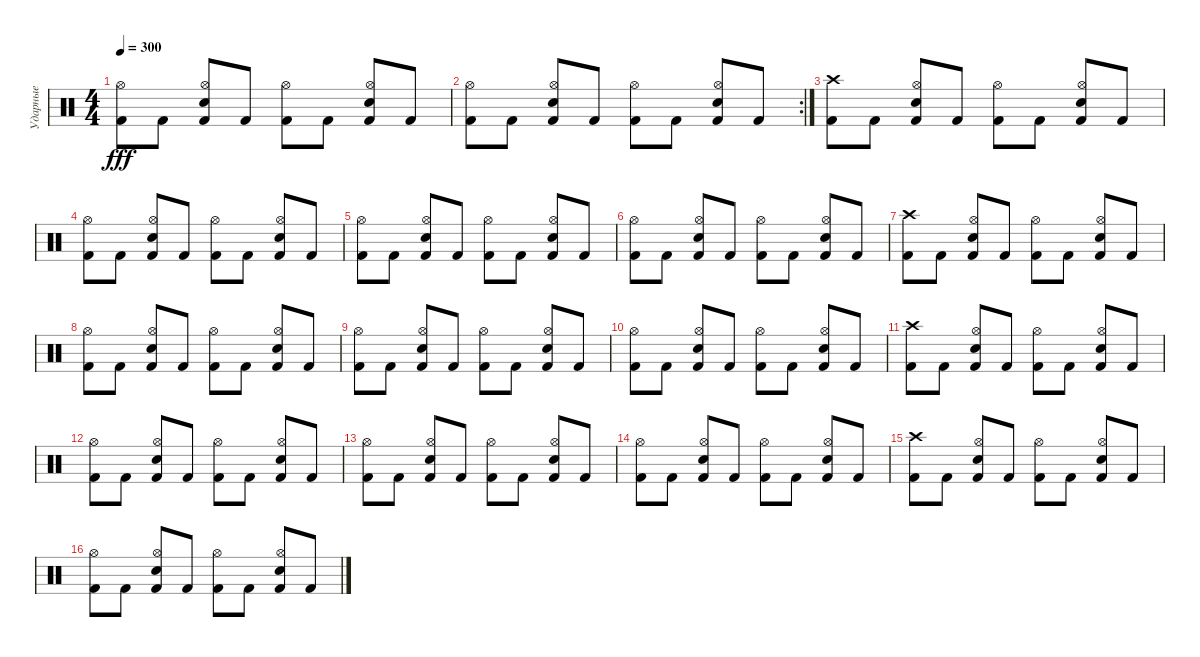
\track ("Ударные" "Ударные") {instrument percussion}
\staff {score}
\articulation defaults
\ts (4 4)
\tempo 300
\clef neutral
\ks c
("Kick (hit) 2" "Hi-Hat (open)").8{dy fff} "Kick (hit) 2".8 ("Kick (hit) 2" "Snare (hit) 2" "Hi-Hat (open)").8 "Kick (hit) 2".8 ("Kick (hit) 2" "Hi-Hat (open)").8 "Kick (hit) 2".8 ("Kick (hit) 2" "Snare (hit) 2" "Hi-Hat (open)").8 "Kick (hit) 2".8 |
\rc 2
("Kick (hit) 2" "Hi-Hat (open)").8 "Kick (hit) 2".8 ("Kick (hit) 2" "Snare (hit) 2" "Hi-Hat (open)").8 "Kick (hit) 2".8 ("Kick (hit) 2" "Hi-Hat (open)").8 "Kick (hit) 2".8 ("Kick (hit) 2" "Snare (hit) 2" "Hi-Hat (open)").8 "Kick (hit) 2".8 |
("Kick (hit) 2" "Crash high (hit)").8 "Kick (hit) 2".8 ("Kick (hit) 2" "Snare (hit) 2" "Hi-Hat (open)").8 "Kick (hit) 2".8 ("Kick (hit) 2" "Hi-Hat (open)").8 "Kick (hit) 2".8 ("Kick (hit) 2" "Snare (hit) 2" "Hi-Hat (open)").8 "Kick (hit) 2".8 |
("Kick (hit) 2" "Hi-Hat (open)").8 "Kick (hit) 2".8 ("Kick (hit) 2" "Snare (hit) 2" "Hi-Hat (open)").8 "Kick (hit) 2".8 ("Kick (hit) 2" "Hi-Hat (open)").8 "Kick (hit) 2".8 ("Kick (hit) 2" "Snare (hit) 2" "Hi-Hat (open)").8 "Kick (hit) 2".8 |
("Kick (hit) 2" "Hi-Hat (open)").8 "Kick (hit) 2".8 ("Kick (hit) 2" "Snare (hit) 2" "Hi-Hat (open)").8 "Kick (hit) 2".8 ("Kick (hit) 2" "Hi-Hat (open)").8 "Kick (hit) 2".8 ("Kick (hit) 2" "Snare (hit) 2" "Hi-Hat (open)").8 "Kick (hit) 2".8 |
("Kick (hit) 2" "Hi-Hat (open)").8 "Kick (hit) 2".8 ("Kick (hit) 2" "Snare (hit) 2" "Hi-Hat (open)").8 "Kick (hit) 2".8 ("Kick (hit) 2" "Hi-Hat (open)").8 "Kick (hit) 2".8 ("Kick (hit) 2" "Snare (hit) 2" "Hi-Hat (open)").8 "Kick (hit) 2".8 |
("Kick (hit) 2" "Crash high (hit)").8 "Kick (hit) 2".8 ("Kick (hit) 2" "Snare (hit) 2" "Hi-Hat (open)").8 "Kick (hit) 2".8 ("Kick (hit) 2" "Hi-Hat (open)").8 "Kick (hit) 2".8 ("Kick (hit) 2" "Snare (hit) 2" "Hi-Hat (open)").8 "Kick (hit) 2".8 |
("Kick (hit) 2" "Hi-Hat (open)").8 "Kick (hit) 2".8 ("Kick (hit) 2" "Snare (hit) 2" "Hi-Hat (open)").8 "Kick (hit) 2".8 ("Kick (hit) 2" "Hi-Hat (open)").8 "Kick (hit) 2".8 ("Kick (hit) 2" "Snare (hit) 2" "Hi-Hat (open)").8 "Kick (hit) 2".8 |
("Kick (hit) 2" "Hi-Hat (open)").8 "Kick (hit) 2".8 ("Kick (hit) 2" "Snare (hit) 2" "Hi-Hat (open)").8 "Kick (hit) 2".8 ("Kick (hit) 2" "Hi-Hat (open)").8 "Kick (hit) 2".8 ("Kick (hit) 2" "Snare (hit) 2" "Hi-Hat (open)").8 "Kick (hit) 2".8 |
("Kick (hit) 2" "Hi-Hat (open)").8 "Kick (hit) 2".8 ("Kick (hit) 2" "Snare (hit) 2" "Hi-Hat (open)").8 "Kick (hit) 2".8 ("Kick (hit) 2" "Hi-Hat (open)").8 "Kick (hit) 2".8 ("Kick (hit) 2" "Snare (hit) 2" "Hi-Hat (open)").8 "Kick (hit) 2".8 |
("Kick (hit) 2" "Crash high (hit)").8 "Kick (hit) 2".8 ("Kick (hit) 2" "Snare (hit) 2" "Hi-Hat (open)").8 "Kick (hit) 2".8 ("Kick (hit) 2" "Hi-Hat (open)").8 "Kick (hit) 2".8 ("Kick (hit) 2" "Snare (hit) 2" "Hi-Hat (open)").8 "Kick (hit) 2".8 |
("Kick (hit) 2" "Hi-Hat (open)").8 "Kick (hit) 2".8 ("Kick (hit) 2" "Snare (hit) 2" "Hi-Hat (open)").8 "Kick (hit) 2".8 ("Kick (hit) 2" "Hi-Hat (open)").8 "Kick (hit) 2".8 ("Kick (hit) 2" "Snare (hit) 2" "Hi-Hat (open)").8 "Kick (hit) 2".8 |
("Kick (hit) 2" "Hi-Hat (open)").8 "Kick (hit) 2".8 ("Kick (hit) 2" "Snare (hit) 2" "Hi-Hat (open)").8 "Kick (hit) 2".8 ("Kick (hit) 2" "Hi-Hat (open)").8 "Kick (hit) 2".8 ("Kick (hit) 2" "Snare (hit) 2" "Hi-Hat (open)").8 "Kick (hit) 2".8 |
("Kick (hit) 2" "Hi-Hat (open)").8 "Kick (hit) 2".8 ("Kick (hit) 2" "Snare (hit) 2" "Hi-Hat (open)").8 "Kick (hit) 2".8 ("Kick (hit) 2" "Hi-Hat (open)").8 "Kick (hit) 2".8 ("Kick (hit) 2" "Snare (hit) 2" "Hi-Hat (open)").8 "Kick (hit) 2".8 |
("Kick (hit) 2" "Crash high (hit)").8 "Kick (hit) 2".8 ("Kick (hit) 2" "Snare (hit) 2" "Hi-Hat (open)").8 "Kick (hit) 2".8 ("Kick (hit) 2" "Hi-Hat (open)").8 "Kick (hit) 2".8 ("Kick (hit) 2" "Snare (hit) 2" "Hi-Hat (open)").8 "Kick (hit) 2".8 |
("Kick (hit) 2" "Hi-Hat (open)").8 "Kick (hit) 2".8 ("Kick (hit) 2" "Snare (hit) 2" "Hi-Hat (open)").8 "Kick (hit) 2".8 ("Kick (hit) 2" "Hi-Hat (open)").8 "Kick (hit) 2".8 ("Kick (hit) 2" "Snare (hit) 2" "Hi-Hat (open)").8 "Kick (hit) 2".8
